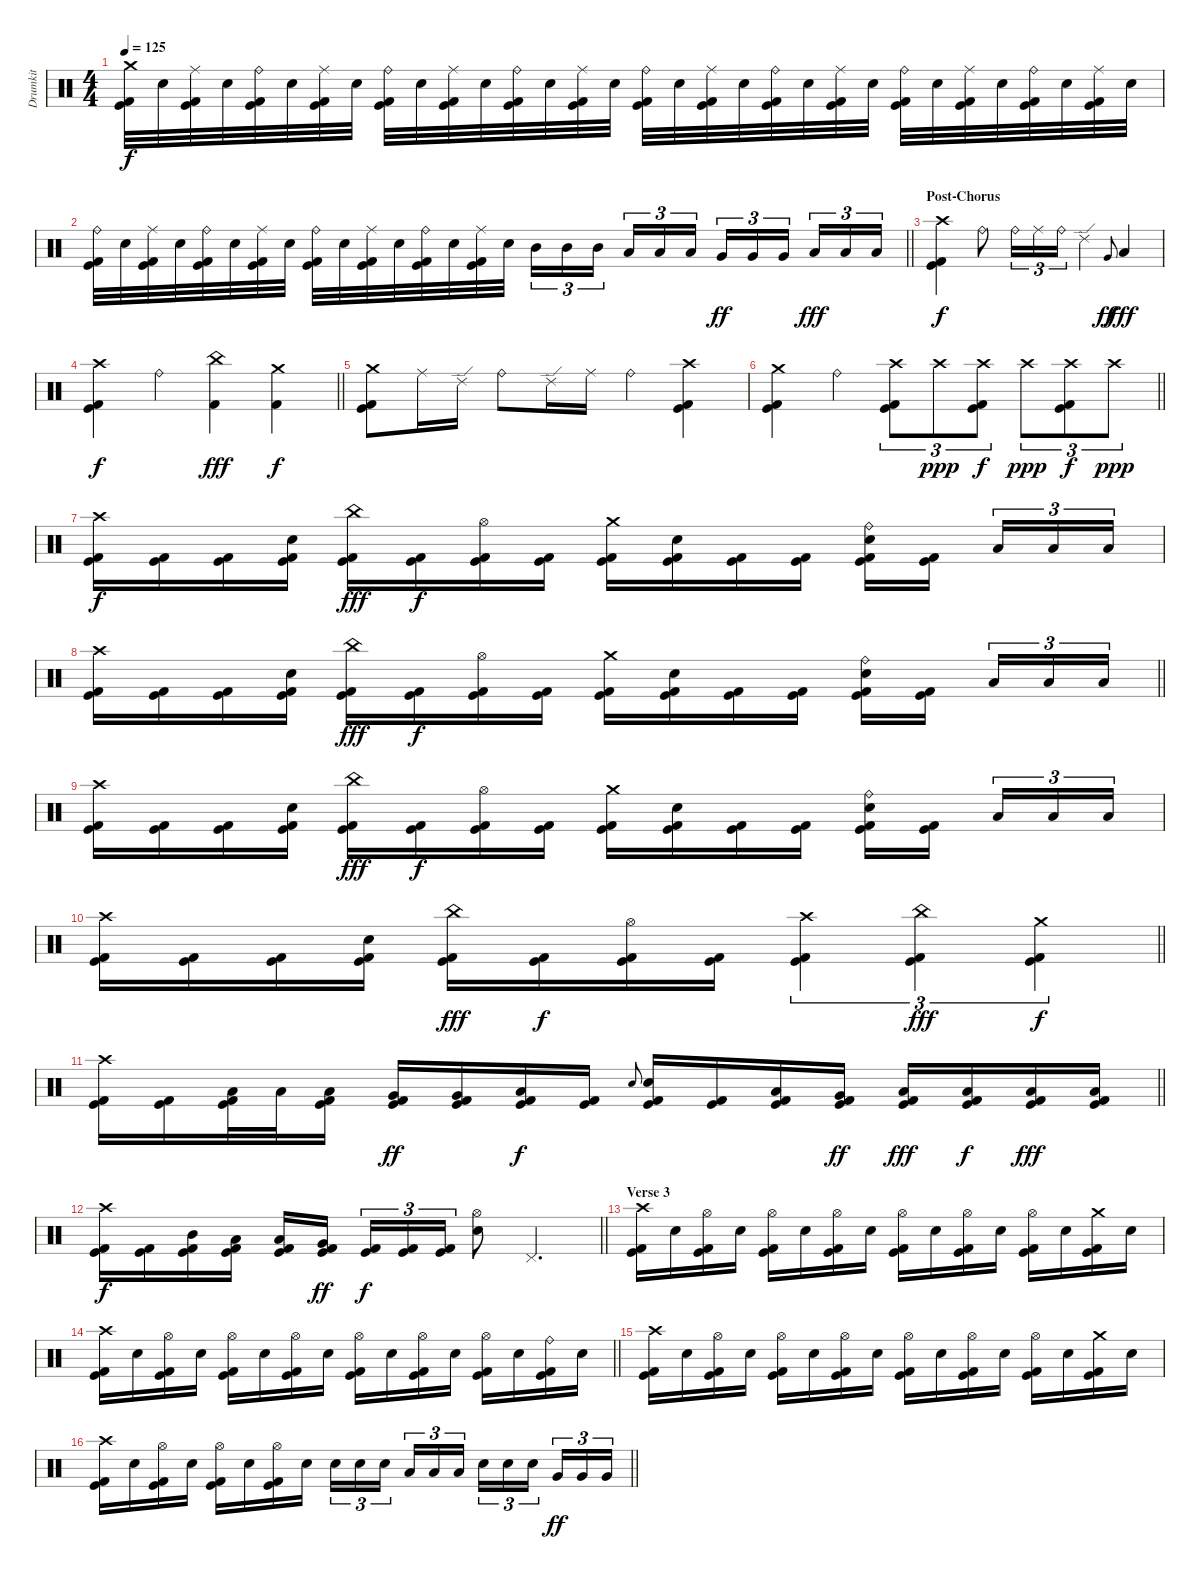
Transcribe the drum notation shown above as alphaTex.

\track ("Drumkit" "Drumkit") {instrument percussion}
\staff {score}
\articulation defaults
\ts (4 4)
\tempo 125
\clef neutral
\ks c
("Crash medium (hit)" "Kick (hit)" "Kick (hit) 2").32{dy f} "Electric Snare (hit)".32 ("Ride (middle)" "Kick (hit)" "Kick (hit) 2").32 "Electric Snare (hit)".32 ("Ride (bell)" "Kick (hit)" "Kick (hit) 2").32 "Electric Snare (hit)".32 ("Ride (middle)" "Kick (hit)" "Kick (hit) 2").32 "Electric Snare (hit)".32 ("Ride (bell)" "Kick (hit)" "Kick (hit) 2").32 "Electric Snare (hit)".32 ("Ride (middle)" "Kick (hit)" "Kick (hit) 2").32 "Electric Snare (hit)".32 ("Ride (bell)" "Kick (hit)" "Kick (hit) 2").32 "Electric Snare (hit)".32 ("Ride (middle)" "Kick (hit)" "Kick (hit) 2").32 "Electric Snare (hit)".32 ("Ride (bell)" "Kick (hit)" "Kick (hit) 2").32 "Electric Snare (hit)".32 ("Ride (middle)" "Kick (hit)" "Kick (hit) 2").32 "Electric Snare (hit)".32 ("Ride (bell)" "Kick (hit)" "Kick (hit) 2").32 "Electric Snare (hit)".32 ("Ride (middle)" "Kick (hit)" "Kick (hit) 2").32 "Electric Snare (hit)".32 ("Ride (bell)" "Kick (hit)" "Kick (hit) 2").32 "Electric Snare (hit)".32 ("Ride (middle)" "Kick (hit)" "Kick (hit) 2").32 "Electric Snare (hit)".32 ("Ride (bell)" "Kick (hit)" "Kick (hit) 2").32 "Electric Snare (hit)".32 ("Ride (middle)" "Kick (hit)" "Kick (hit) 2").32 "Electric Snare (hit)".32 |
\barLineRight lightlight
("Ride (bell)" "Kick (hit)" "Kick (hit) 2").32 "Electric Snare (hit)".32 ("Ride (middle)" "Kick (hit)" "Kick (hit) 2").32 "Electric Snare (hit)".32 ("Ride (bell)" "Kick (hit)" "Kick (hit) 2").32 "Electric Snare (hit)".32 ("Ride (middle)" "Kick (hit)" "Kick (hit) 2").32 "Electric Snare (hit)".32 ("Ride (bell)" "Kick (hit)" "Kick (hit) 2").32 "Electric Snare (hit)".32 ("Ride (middle)" "Kick (hit)" "Kick (hit) 2").32 "Electric Snare (hit)".32 ("Ride (bell)" "Kick (hit)" "Kick (hit) 2").32 "Electric Snare (hit)".32 ("Ride (middle)" "Kick (hit)" "Kick (hit) 2").32 "Electric Snare (hit)".32 "Mid Tom (hit)".16{tu (3 2)} "Mid Tom (hit)".16{tu (3 2)} "Mid Tom (hit)".16{tu (3 2) beam splitsecondary} "Low Tom (hit)".16{tu (3 2)} "Low Tom (hit)".16{tu (3 2)} "Low Tom (hit)".16{tu (3 2)} "Very Low Tom (hit)".16{tu (3 2) dy ff} "Very Low Tom (hit)".16{tu (3 2)} "Very Low Tom (hit)".16{tu (3 2) beam splitsecondary} "Low Floor Tom (hit)".16{tu (3 2) dy fff} "Low Floor Tom (hit)".16{tu (3 2)} "Low Floor Tom (hit)".16{tu (3 2)} |
\section ("" "Post-Chorus")
("Crash high (hit)" "Kick (hit)" "Kick (hit) 2").4{dy f} "Ride (bell)".8 "Ride (bell)".16{tu (3 2)} "Ride (middle)".16{tu (3 2)} "Ride (bell)".16{tu (3 2)} "Ride (edge) 2".4 "Very Low Tom (hit)".8{gr onbeat dy ff} "Low Floor Tom (hit)".4{dy fff} |
\barLineRight lightlight
("Crash high (hit)" "Kick (hit)" "Kick (hit) 2").4{dy f} "Ride (bell)".4 ("China (hit)" "Kick (hit) 2").4{dy fff} ("Crash medium (hit)" "Kick (hit) 2").4{dy f} |
("Crash medium (hit)" "Kick (hit)" "Kick (hit) 2").8 "Ride (middle)".16 "Ride (edge) 2".16 "Ride (bell)".8 "Ride (edge) 2".16 "Ride (middle)".16 "Ride (bell)".4 ("Crash high (hit)" "Kick (hit)" "Kick (hit) 2").4 |
\barLineRight lightlight
("Crash medium (hit)" "Kick (hit)" "Kick (hit) 2").4 "Ride (bell)".4 ("Crash high (hit)" "Kick (hit)" "Kick (hit) 2").8{tu (3 2)} "Crash high (hit)".8{tu (3 2) dy ppp} ("Crash high (hit)" "Kick (hit)" "Kick (hit) 2").8{tu (3 2) dy f} "Crash high (hit)".8{tu (3 2) dy ppp} ("Crash high (hit)" "Kick (hit)" "Kick (hit) 2").8{tu (3 2) dy f} "Crash high (hit)".8{tu (3 2) dy ppp} |
("Crash high (hit)" "Kick (hit)" "Kick (hit) 2").16{dy f} ("Kick (hit)" "Kick (hit) 2").16 ("Kick (hit)" "Kick (hit) 2").16 ("Electric Snare (hit)" "Kick (hit)" "Kick (hit) 2").16 ("China (hit)" "Kick (hit)" "Kick (hit) 2").16{dy fff} ("Kick (hit)" "Kick (hit) 2").16{dy f} ("Hi-Hat (open)" "Kick (hit)" "Kick (hit) 2").16 ("Kick (hit)" "Kick (hit) 2").16 ("Crash medium (hit)" "Kick (hit)" "Kick (hit) 2").16 ("Electric Snare (hit)" "Kick (hit)" "Kick (hit) 2").16 ("Kick (hit)" "Kick (hit) 2").16 ("Kick (hit)" "Kick (hit) 2").16 ("Ride (bell)" "Electric Snare (hit)" "Kick (hit)" "Kick (hit) 2").16 ("Kick (hit)" "Kick (hit) 2").16{beam splitsecondary} "Low Tom (hit)".16{tu (3 2)} "Low Tom (hit)".16{tu (3 2)} "Low Tom (hit)".16{tu (3 2)} |
\barLineRight lightlight
("Crash high (hit)" "Kick (hit)" "Kick (hit) 2").16 ("Kick (hit)" "Kick (hit) 2").16 ("Kick (hit)" "Kick (hit) 2").16 ("Electric Snare (hit)" "Kick (hit)" "Kick (hit) 2").16 ("China (hit)" "Kick (hit)" "Kick (hit) 2").16{dy fff} ("Kick (hit)" "Kick (hit) 2").16{dy f} ("Hi-Hat (open)" "Kick (hit)" "Kick (hit) 2").16 ("Kick (hit)" "Kick (hit) 2").16 ("Crash medium (hit)" "Kick (hit)" "Kick (hit) 2").16 ("Electric Snare (hit)" "Kick (hit)" "Kick (hit) 2").16 ("Kick (hit)" "Kick (hit) 2").16 ("Kick (hit)" "Kick (hit) 2").16 ("Ride (bell)" "Electric Snare (hit)" "Kick (hit)" "Kick (hit) 2").16 ("Kick (hit)" "Kick (hit) 2").16{beam splitsecondary} "Low Tom (hit)".16{tu (3 2)} "Low Tom (hit)".16{tu (3 2)} "Low Tom (hit)".16{tu (3 2)} |
("Crash high (hit)" "Kick (hit)" "Kick (hit) 2").16 ("Kick (hit)" "Kick (hit) 2").16 ("Kick (hit)" "Kick (hit) 2").16 ("Electric Snare (hit)" "Kick (hit)" "Kick (hit) 2").16 ("China (hit)" "Kick (hit)" "Kick (hit) 2").16{dy fff} ("Kick (hit)" "Kick (hit) 2").16{dy f} ("Hi-Hat (open)" "Kick (hit)" "Kick (hit) 2").16 ("Kick (hit)" "Kick (hit) 2").16 ("Crash medium (hit)" "Kick (hit)" "Kick (hit) 2").16 ("Electric Snare (hit)" "Kick (hit)" "Kick (hit) 2").16 ("Kick (hit)" "Kick (hit) 2").16 ("Kick (hit)" "Kick (hit) 2").16 ("Ride (bell)" "Electric Snare (hit)" "Kick (hit)" "Kick (hit) 2").16 ("Kick (hit)" "Kick (hit) 2").16{beam splitsecondary} "Low Tom (hit)".16{tu (3 2)} "Low Tom (hit)".16{tu (3 2)} "Low Tom (hit)".16{tu (3 2)} |
\barLineRight lightlight
("Crash high (hit)" "Kick (hit)" "Kick (hit) 2").16 ("Kick (hit)" "Kick (hit) 2").16 ("Kick (hit)" "Kick (hit) 2").16 ("Electric Snare (hit)" "Kick (hit)" "Kick (hit) 2").16 ("China (hit)" "Kick (hit)" "Kick (hit) 2").16{dy fff} ("Kick (hit)" "Kick (hit) 2").16{dy f} ("Hi-Hat (open)" "Kick (hit)" "Kick (hit) 2").16 ("Kick (hit)" "Kick (hit) 2").16 ("Crash high (hit)" "Kick (hit)" "Kick (hit) 2").4{tu (3 2)} ("China (hit)" "Kick (hit)" "Kick (hit) 2").4{tu (3 2) dy fff} ("Crash medium (hit)" "Kick (hit)" "Kick (hit) 2").4{tu (3 2) dy f} |
\barLineRight lightlight
("Crash high (hit)" "Kick (hit)" "Kick (hit) 2").16 ("Kick (hit)" "Kick (hit) 2").16 ("Low Tom (hit)" "Kick (hit)" "Kick (hit) 2").32 "Low Tom (hit)".32 ("Low Tom (hit)" "Kick (hit)" "Kick (hit) 2").16 ("Very Low Tom (hit)" "Kick (hit)" "Kick (hit) 2").16{dy ff} ("Very Low Tom (hit)" "Kick (hit)" "Kick (hit) 2").16 ("Low Floor Tom (hit)" "Kick (hit)" "Kick (hit) 2").16{dy f} ("Kick (hit)" "Kick (hit) 2").16 "Electric Snare (hit)".8{gr onbeat} ("Electric Snare (hit)" "Kick (hit)" "Kick (hit) 2").16 ("Kick (hit)" "Kick (hit) 2").16 ("Low Tom (hit)" "Kick (hit)" "Kick (hit) 2").16 ("Very Low Tom (hit)" "Kick (hit)" "Kick (hit) 2").16{dy ff} ("Low Floor Tom (hit)" "Kick (hit)" "Kick (hit) 2").16{dy fff} ("Low Tom (hit)" "Kick (hit)" "Kick (hit) 2").16{dy f} ("Low Floor Tom (hit)" "Kick (hit)" "Kick (hit) 2").16{dy fff} ("Low Floor Tom (hit)" "Kick (hit)" "Kick (hit) 2").16 |
\barLineRight lightlight
("Crash high (hit)" "Kick (hit)" "Kick (hit) 2").16{dy f} ("Kick (hit)" "Kick (hit) 2").16 ("Mid Tom (hit)" "Kick (hit)" "Kick (hit) 2").16 ("Low Tom (hit)" "Kick (hit)" "Kick (hit) 2").16 ("Low Tom (hit)" "Kick (hit)" "Kick (hit) 2").16 ("Very Low Tom (hit)" "Kick (hit)" "Kick (hit) 2").16{dy ff beam splitsecondary} ("Kick (hit)" "Kick (hit) 2").16{tu (3 2) dy f} ("Kick (hit)" "Kick (hit) 2").16{tu (3 2)} ("Kick (hit)" "Kick (hit) 2").16{tu (3 2)} ("Hi-Hat (open)" "Electric Snare (hit)").8 "Pedal Hi-Hat (hit)".4{d} |
\section ("" "Verse 3")
("Crash high (hit)" "Kick (hit)" "Kick (hit) 2").16 "Electric Snare (hit)".16 ("Hi-Hat (open)" "Kick (hit)" "Kick (hit) 2").16 "Electric Snare (hit)".16 ("Hi-Hat (open)" "Kick (hit)" "Kick (hit) 2").16 "Electric Snare (hit)".16 ("Hi-Hat (open)" "Kick (hit)" "Kick (hit) 2").16 "Electric Snare (hit)".16 ("Hi-Hat (open)" "Kick (hit)" "Kick (hit) 2").16 "Electric Snare (hit)".16 ("Hi-Hat (open)" "Kick (hit)" "Kick (hit) 2").16 "Electric Snare (hit)".16 ("Hi-Hat (open)" "Kick (hit)" "Kick (hit) 2").16 "Electric Snare (hit)".16 ("Crash medium (hit)" "Kick (hit)" "Kick (hit) 2").16 "Electric Snare (hit)".16 |
\barLineRight lightlight
("Crash high (hit)" "Kick (hit)" "Kick (hit) 2").16 "Electric Snare (hit)".16 ("Hi-Hat (open)" "Kick (hit)" "Kick (hit) 2").16 "Electric Snare (hit)".16 ("Hi-Hat (open)" "Kick (hit)" "Kick (hit) 2").16 "Electric Snare (hit)".16 ("Hi-Hat (open)" "Kick (hit)" "Kick (hit) 2").16 "Electric Snare (hit)".16 ("Hi-Hat (open)" "Kick (hit)" "Kick (hit) 2").16 "Electric Snare (hit)".16 ("Hi-Hat (open)" "Kick (hit)" "Kick (hit) 2").16 "Electric Snare (hit)".16 ("Hi-Hat (open)" "Kick (hit)" "Kick (hit) 2").16 "Electric Snare (hit)".16 ("Ride (bell)" "Kick (hit)" "Kick (hit) 2").16 "Electric Snare (hit)".16 |
("Crash high (hit)" "Kick (hit)" "Kick (hit) 2").16 "Electric Snare (hit)".16 ("Hi-Hat (open)" "Kick (hit)" "Kick (hit) 2").16 "Electric Snare (hit)".16 ("Hi-Hat (open)" "Kick (hit)" "Kick (hit) 2").16 "Electric Snare (hit)".16 ("Hi-Hat (open)" "Kick (hit)" "Kick (hit) 2").16 "Electric Snare (hit)".16 ("Hi-Hat (open)" "Kick (hit)" "Kick (hit) 2").16 "Electric Snare (hit)".16 ("Hi-Hat (open)" "Kick (hit)" "Kick (hit) 2").16 "Electric Snare (hit)".16 ("Hi-Hat (open)" "Kick (hit)" "Kick (hit) 2").16 "Electric Snare (hit)".16 ("Crash medium (hit)" "Kick (hit)" "Kick (hit) 2").16 "Electric Snare (hit)".16 |
\barLineRight lightlight
("Crash high (hit)" "Kick (hit)" "Kick (hit) 2").16 "Electric Snare (hit)".16 ("Hi-Hat (open)" "Kick (hit)" "Kick (hit) 2").16 "Electric Snare (hit)".16 ("Hi-Hat (open)" "Kick (hit)" "Kick (hit) 2").16 "Electric Snare (hit)".16 ("Hi-Hat (open)" "Kick (hit)" "Kick (hit) 2").16 "Electric Snare (hit)".16 "Electric Snare (hit)".16{tu (3 2)} "Electric Snare (hit)".16{tu (3 2)} "Electric Snare (hit)".16{tu (3 2) beam splitsecondary} "Low Tom (hit)".16{tu (3 2)} "Low Tom (hit)".16{tu (3 2)} "Low Tom (hit)".16{tu (3 2)} "Electric Snare (hit)".16{tu (3 2)} "Electric Snare (hit)".16{tu (3 2)} "Electric Snare (hit)".16{tu (3 2) beam splitsecondary} "Very Low Tom (hit)".16{tu (3 2) dy ff} "Very Low Tom (hit)".16{tu (3 2)} "Very Low Tom (hit)".16{tu (3 2)}
